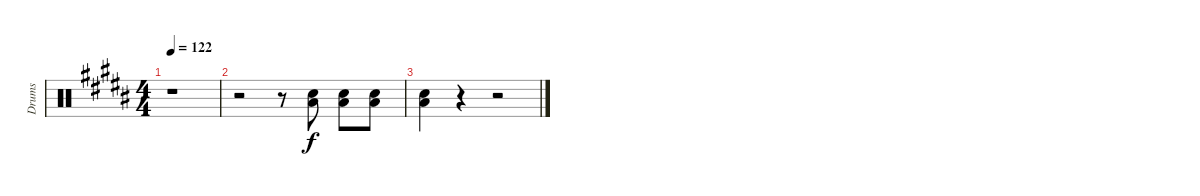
\track ("Drums" "Drums") {instrument percussion}
\staff {score}
\articulation defaults
\ts (4 4)
\tempo 122
\clef neutral
\ks g#minor
r.1{dy f} |
r.2 r.8 ("Electric Snare (hit)" "Low Floor Tom (hit)").8 ("Electric Snare (hit)" "Low Floor Tom (hit)").8 ("Electric Snare (hit)" "Low Floor Tom (hit)").8 |
("Electric Snare (hit)" "Low Floor Tom (hit)").4 r.4 r.2
